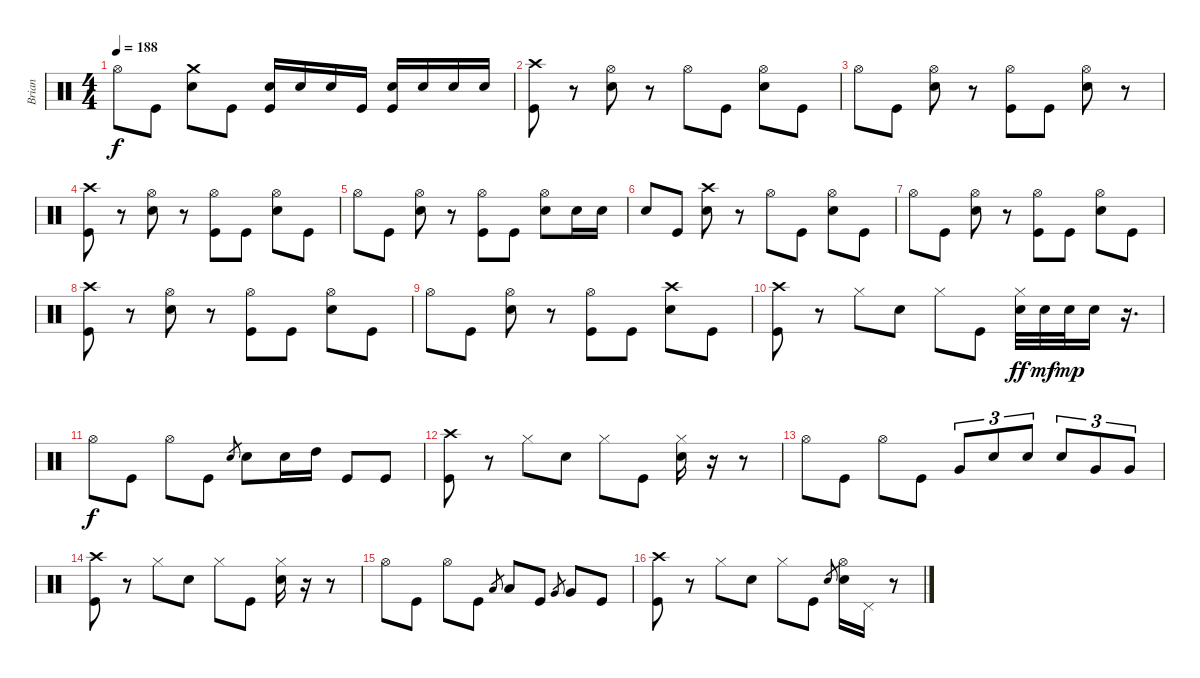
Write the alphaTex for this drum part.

\track ("Brian" "Brian") {instrument percussion}
\staff {score}
\articulation defaults
\ts (4 4)
\tempo 188
\clef neutral
\ks c "Hi-Hat (open)".8{dy f} "Kick (hit)".8
("Crash medium (hit)" "Snare (hit) 2").8 "Kick (hit)".8 ("Snare (hit) 2" "Kick (hit)").16 "Snare (hit) 2".16 "Snare (hit) 2".16 "Kick (hit)".16 ("Snare (hit) 2" "Kick (hit)").16 "Snare (hit) 2".16 "Snare (hit) 2".16 "Snare (hit) 2".16 |
("Crash high (hit)" "Kick (hit)").8 r.8 ("Hi-Hat (open)" "Snare (hit) 2").8 r.8 "Hi-Hat (open)".8 "Kick (hit)".8 ("Hi-Hat (open)" "Snare (hit) 2").8 "Kick (hit)".8 |
"Hi-Hat (open)".8 "Kick (hit)".8 ("Hi-Hat (open)" "Snare (hit) 2").8 r.8 ("Hi-Hat (open)" "Kick (hit)").8 "Kick (hit)".8 ("Hi-Hat (open)" "Snare (hit) 2").8 r.8 |
("Crash high (hit)" "Kick (hit)").8 r.8 ("Hi-Hat (open)" "Snare (hit) 2").8 r.8 ("Hi-Hat (open)" "Kick (hit)").8 "Kick (hit)".8 ("Hi-Hat (open)" "Snare (hit) 2").8 "Kick (hit)".8 |
"Hi-Hat (open)".8 "Kick (hit)".8 ("Hi-Hat (open)" "Snare (hit) 2").8 r.8 ("Hi-Hat (open)" "Kick (hit)").8 "Kick (hit)".8 ("Hi-Hat (open)" "Snare (hit) 2").8 "Snare (hit) 2".16 "Snare (hit) 2".16 |
"Snare (hit) 2".8 "Kick (hit)".8 ("Crash high (hit)" "Snare (hit) 2").8 r.8 "Hi-Hat (open)".8 "Kick (hit)".8 ("Hi-Hat (open)" "Snare (hit) 2").8 "Kick (hit)".8 |
"Hi-Hat (open)".8 "Kick (hit)".8 ("Hi-Hat (open)" "Snare (hit) 2").8 r.8 ("Hi-Hat (open)" "Kick (hit)").8 "Kick (hit)".8 ("Hi-Hat (open)" "Snare (hit) 2").8 "Kick (hit)".8 |
("Crash high (hit)" "Kick (hit)").8 r.8 ("Hi-Hat (open)" "Snare (hit) 2").8 r.8 ("Hi-Hat (open)" "Kick (hit)").8 "Kick (hit)".8 ("Hi-Hat (open)" "Snare (hit) 2").8 "Kick (hit)".8 |
"Hi-Hat (open)".8 "Kick (hit)".8 ("Hi-Hat (open)" "Snare (hit) 2").8 r.8 ("Hi-Hat (open)" "Kick (hit)").8 "Kick (hit)".8 ("Crash high (hit)" "Snare (hit) 2").8 "Kick (hit)".8 |
("Crash high (hit)" "Kick (hit)").8 r.8 "Hi-Hat (closed)".8 "Snare (hit) 2".8 "Hi-Hat (closed)".8 "Kick (hit)".8 ("Hi-Hat (closed)" "Snare (hit) 2").32{dy ff} "Snare (hit) 2".32{dy mf} "Snare (hit) 2".32{dy mp} "Snare (hit) 2".16 r.16{d} |
"Hi-Hat (open)".8{dy f} "Kick (hit)".8 "Hi-Hat (open)".8 "Kick (hit)".8 "Snare (hit) 2".8{gr} "Snare (hit) 2".8 "Snare (hit) 2".16 "High Tom (hit)".16 "Kick (hit)".8 "Kick (hit)".8 |
("Crash high (hit)" "Kick (hit)").8 r.8 "Hi-Hat (closed)".8 "Snare (hit) 2".8 "Hi-Hat (closed)".8 "Kick (hit)".8 ("Hi-Hat (closed)" "Snare (hit) 2").16 r.16 r.8 |
"Hi-Hat (open)".8 "Kick (hit)".8 "Hi-Hat (open)".8 "Kick (hit)".8 "Very Low Tom (hit)".8{tu (3 2)} "Snare (hit) 2".8{tu (3 2)} "Snare (hit) 2".8{tu (3 2)} "Snare (hit) 2".8{tu (3 2)} "Very Low Tom (hit)".8{tu (3 2)} "Very Low Tom (hit)".8{tu (3 2)} |
("Crash high (hit)" "Kick (hit)").8 r.8 "Hi-Hat (closed)".8 "Snare (hit) 2".8 "Hi-Hat (closed)".8 "Kick (hit)".8 ("Hi-Hat (closed)" "Snare (hit) 2").16 r.16 r.8 |
"Hi-Hat (open)".8 "Kick (hit)".8 "Hi-Hat (open)".8 "Kick (hit)".8 "Low Tom (hit)".8{gr} "Low Tom (hit)".8 "Kick (hit)".8 "Very Low Tom (hit)".8{gr} "Very Low Tom (hit)".8 "Kick (hit)".8 |
("Crash high (hit)" "Kick (hit)").8 r.8 "Hi-Hat (closed)".8 "Snare (hit) 2".8 "Hi-Hat (closed)".8 "Kick (hit)".8 "Snare (hit) 2".8{gr} ("Hi-Hat (open)" "Snare (hit) 2").16 "Pedal Hi-Hat (hit)".16 r.8
